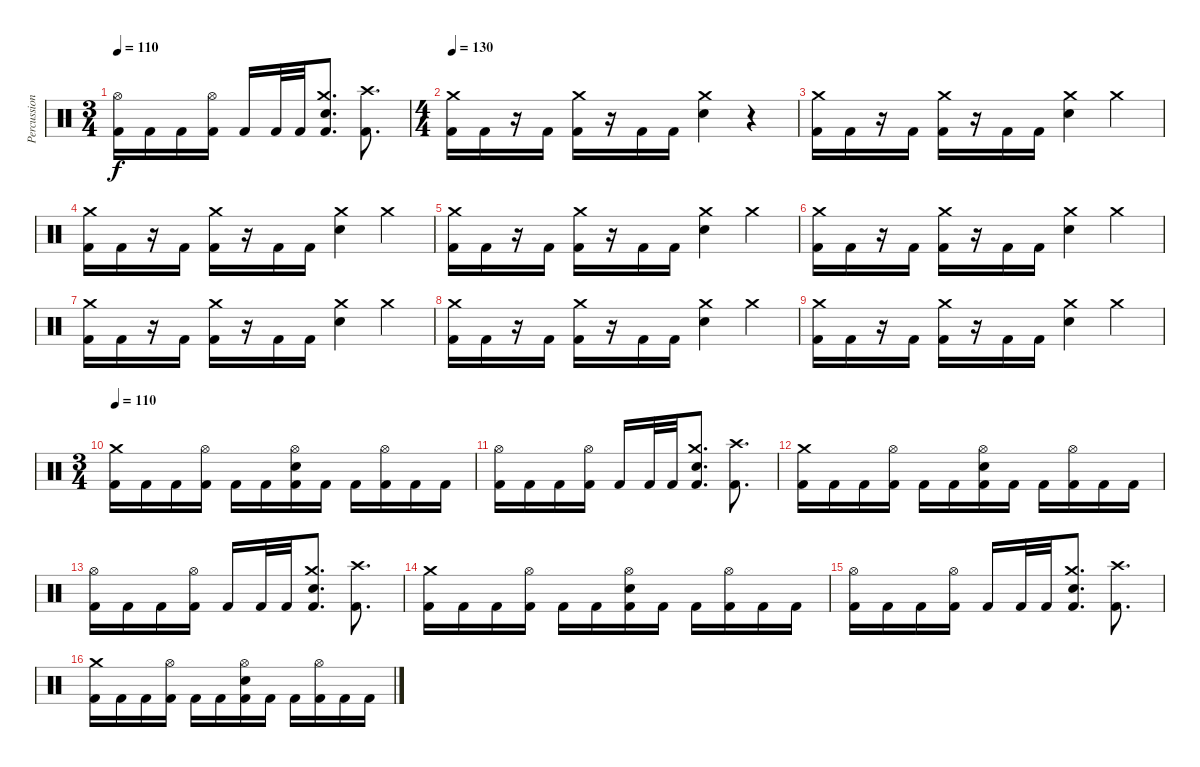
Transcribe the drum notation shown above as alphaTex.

\track ("Percussion" "Percussion") {instrument percussion}
\staff {score}
\articulation defaults
\ts (3 4)
\tempo 110
\clef neutral
\ks c
("Hi-Hat (open)" "Kick (hit) 2").16{dy f} "Kick (hit) 2".16 "Kick (hit) 2".16 ("Hi-Hat (open)" "Kick (hit) 2").16 "Kick (hit) 2".16 "Kick (hit) 2".32 "Kick (hit) 2".32 ("Crash medium (hit)" "Electric Snare (hit)" "Kick (hit) 2").8{d} ("Crash high (hit)" "Kick (hit) 2").8{d} |
\ts (4 4)
\tempo 130
("Crash medium (hit)" "Kick (hit) 2").16 "Kick (hit) 2".16 r.16 "Kick (hit) 2".16 ("Crash medium (hit)" "Kick (hit) 2").16 r.16 "Kick (hit) 2".16 "Kick (hit) 2".16 ("Crash medium (hit)" "Electric Snare (hit)").4 r.4 |
("Crash medium (hit)" "Kick (hit) 2").16 "Kick (hit) 2".16 r.16 "Kick (hit) 2".16 ("Crash medium (hit)" "Kick (hit) 2").16 r.16 "Kick (hit) 2".16 "Kick (hit) 2".16 ("Crash medium (hit)" "Electric Snare (hit)").4 "Crash medium (hit)".4 |
("Crash medium (hit)" "Kick (hit) 2").16 "Kick (hit) 2".16 r.16 "Kick (hit) 2".16 ("Crash medium (hit)" "Kick (hit) 2").16 r.16 "Kick (hit) 2".16 "Kick (hit) 2".16 ("Crash medium (hit)" "Electric Snare (hit)").4 "Crash medium (hit)".4 |
("Crash medium (hit)" "Kick (hit) 2").16 "Kick (hit) 2".16 r.16 "Kick (hit) 2".16 ("Crash medium (hit)" "Kick (hit) 2").16 r.16 "Kick (hit) 2".16 "Kick (hit) 2".16 ("Crash medium (hit)" "Electric Snare (hit)").4 "Crash medium (hit)".4 |
("Crash medium (hit)" "Kick (hit) 2").16 "Kick (hit) 2".16 r.16 "Kick (hit) 2".16 ("Crash medium (hit)" "Kick (hit) 2").16 r.16 "Kick (hit) 2".16 "Kick (hit) 2".16 ("Crash medium (hit)" "Electric Snare (hit)").4 "Crash medium (hit)".4 |
("Crash medium (hit)" "Kick (hit) 2").16 "Kick (hit) 2".16 r.16 "Kick (hit) 2".16 ("Crash medium (hit)" "Kick (hit) 2").16 r.16 "Kick (hit) 2".16 "Kick (hit) 2".16 ("Crash medium (hit)" "Electric Snare (hit)").4 "Crash medium (hit)".4 |
("Crash medium (hit)" "Kick (hit) 2").16 "Kick (hit) 2".16 r.16 "Kick (hit) 2".16 ("Crash medium (hit)" "Kick (hit) 2").16 r.16 "Kick (hit) 2".16 "Kick (hit) 2".16 ("Crash medium (hit)" "Electric Snare (hit)").4 "Crash medium (hit)".4 |
("Crash medium (hit)" "Kick (hit) 2").16 "Kick (hit) 2".16 r.16 "Kick (hit) 2".16 ("Crash medium (hit)" "Kick (hit) 2").16 r.16 "Kick (hit) 2".16 "Kick (hit) 2".16 ("Crash medium (hit)" "Electric Snare (hit)").4 "Crash medium (hit)".4 |
\ts (3 4)
\tempo 110
("Crash medium (hit)" "Kick (hit) 2").16 "Kick (hit) 2".16 "Kick (hit) 2".16 ("Hi-Hat (open)" "Kick (hit) 2").16 "Kick (hit) 2".16 "Kick (hit) 2".16 ("Hi-Hat (open)" "Electric Snare (hit)" "Kick (hit) 2").16 "Kick (hit) 2".16 "Kick (hit) 2".16 ("Hi-Hat (open)" "Kick (hit) 2").16 "Kick (hit) 2".16 "Kick (hit) 2".16 |
("Hi-Hat (open)" "Kick (hit) 2").16 "Kick (hit) 2".16 "Kick (hit) 2".16 ("Hi-Hat (open)" "Kick (hit) 2").16 "Kick (hit) 2".16 "Kick (hit) 2".32 "Kick (hit) 2".32 ("Crash medium (hit)" "Electric Snare (hit)" "Kick (hit) 2").8{d} ("Crash high (hit)" "Kick (hit) 2").8{d} |
("Crash medium (hit)" "Kick (hit) 2").16 "Kick (hit) 2".16 "Kick (hit) 2".16 ("Hi-Hat (open)" "Kick (hit) 2").16 "Kick (hit) 2".16 "Kick (hit) 2".16 ("Hi-Hat (open)" "Electric Snare (hit)" "Kick (hit) 2").16 "Kick (hit) 2".16 "Kick (hit) 2".16 ("Hi-Hat (open)" "Kick (hit) 2").16 "Kick (hit) 2".16 "Kick (hit) 2".16 |
("Hi-Hat (open)" "Kick (hit) 2").16 "Kick (hit) 2".16 "Kick (hit) 2".16 ("Hi-Hat (open)" "Kick (hit) 2").16 "Kick (hit) 2".16 "Kick (hit) 2".32 "Kick (hit) 2".32 ("Crash medium (hit)" "Electric Snare (hit)" "Kick (hit) 2").8{d} ("Crash high (hit)" "Kick (hit) 2").8{d} |
("Crash medium (hit)" "Kick (hit) 2").16 "Kick (hit) 2".16 "Kick (hit) 2".16 ("Hi-Hat (open)" "Kick (hit) 2").16 "Kick (hit) 2".16 "Kick (hit) 2".16 ("Hi-Hat (open)" "Electric Snare (hit)" "Kick (hit) 2").16 "Kick (hit) 2".16 "Kick (hit) 2".16 ("Hi-Hat (open)" "Kick (hit) 2").16 "Kick (hit) 2".16 "Kick (hit) 2".16 |
("Hi-Hat (open)" "Kick (hit) 2").16 "Kick (hit) 2".16 "Kick (hit) 2".16 ("Hi-Hat (open)" "Kick (hit) 2").16 "Kick (hit) 2".16 "Kick (hit) 2".32 "Kick (hit) 2".32 ("Crash medium (hit)" "Electric Snare (hit)" "Kick (hit) 2").8{d} ("Crash high (hit)" "Kick (hit) 2").8{d} |
("Crash medium (hit)" "Kick (hit) 2").16 "Kick (hit) 2".16 "Kick (hit) 2".16 ("Hi-Hat (open)" "Kick (hit) 2").16 "Kick (hit) 2".16 "Kick (hit) 2".16 ("Hi-Hat (open)" "Electric Snare (hit)" "Kick (hit) 2").16 "Kick (hit) 2".16 "Kick (hit) 2".16 ("Hi-Hat (open)" "Kick (hit) 2").16 "Kick (hit) 2".16 "Kick (hit) 2".16
